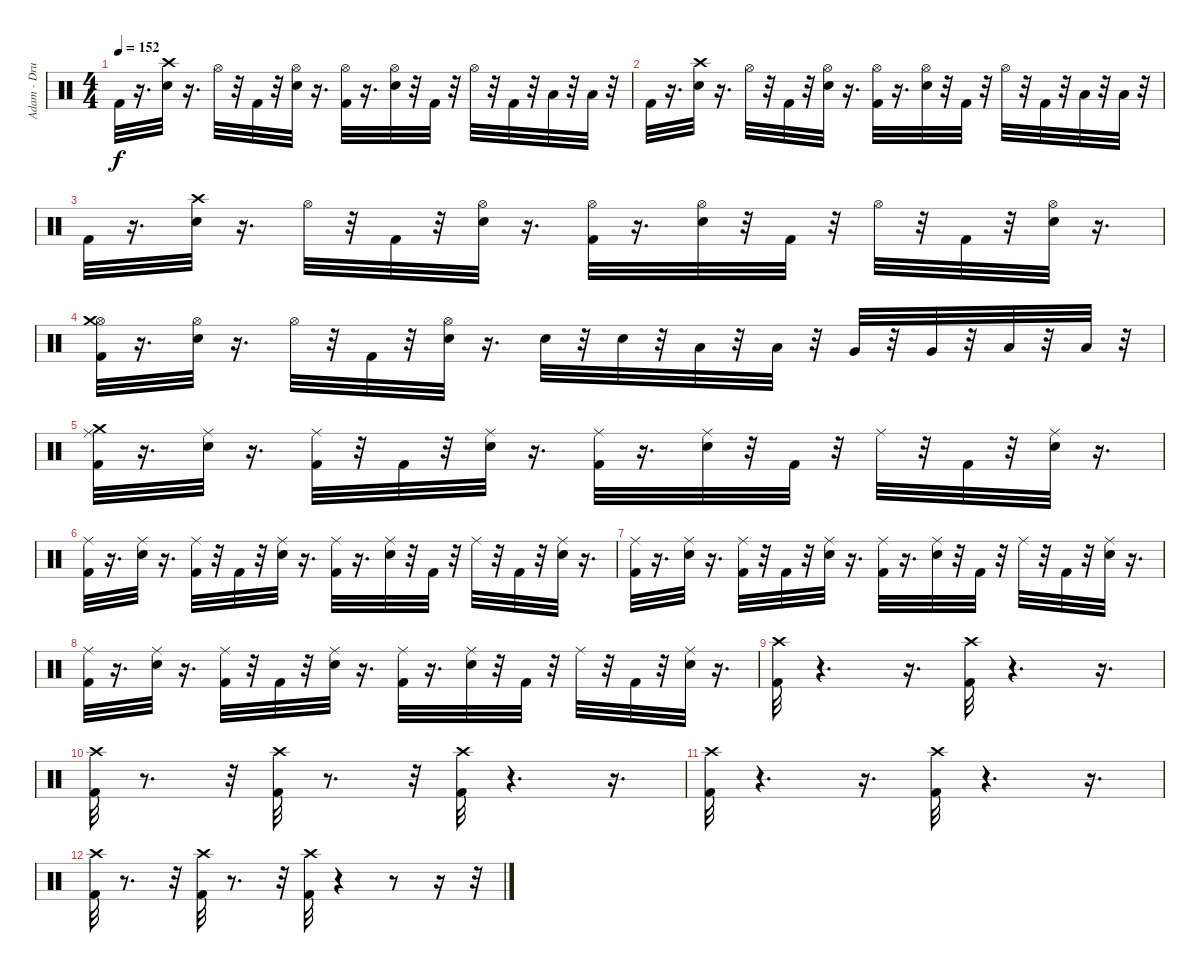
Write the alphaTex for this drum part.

\track ("Adam - Drums" "Adam - Dru") {instrument percussion}
\staff {score}
\articulation defaults
\ts (4 4)
\tempo 152
\clef neutral
\ks c "Kick (hit) 2".32{dy f}
r.16{d} ("Snare (hit) 2" "Crash high (hit)").32 r.16{d} "Hi-Hat (open)".32 r.32 "Kick (hit) 2".32 r.32 ("Snare (hit) 2" "Hi-Hat (open)").32 r.16{d} ("Kick (hit) 2" "Hi-Hat (open)").32 r.16{d} ("Snare (hit) 2" "Hi-Hat (open)").32 r.32 "Kick (hit) 2".32 r.32 "Hi-Hat (open)".32 r.32 "Kick (hit) 2".32 r.32 "Low Floor Tom (hit)".32 r.32 "Low Floor Tom (hit)".32 r.32 |
"Kick (hit) 2".32 r.16{d} ("Snare (hit) 2" "Crash high (hit)").32 r.16{d} "Hi-Hat (open)".32 r.32 "Kick (hit) 2".32 r.32 ("Snare (hit) 2" "Hi-Hat (open)").32 r.16{d} ("Kick (hit) 2" "Hi-Hat (open)").32 r.16{d} ("Snare (hit) 2" "Hi-Hat (open)").32 r.32 "Kick (hit) 2".32 r.32 "Hi-Hat (open)".32 r.32 "Kick (hit) 2".32 r.32 "Low Floor Tom (hit)".32 r.32 "Low Floor Tom (hit)".32 r.32 |
"Kick (hit) 2".32 r.16{d} ("Snare (hit) 2" "Crash high (hit)").32 r.16{d} "Hi-Hat (open)".32 r.32 "Kick (hit) 2".32 r.32 ("Snare (hit) 2" "Hi-Hat (open)").32 r.16{d} ("Kick (hit) 2" "Hi-Hat (open)").32 r.16{d} ("Snare (hit) 2" "Hi-Hat (open)").32 r.32 "Kick (hit) 2".32 r.32 "Hi-Hat (open)".32 r.32 "Kick (hit) 2".32 r.32 ("Snare (hit) 2" "Hi-Hat (open)").32 r.16{d} |
("Kick (hit) 2" "Hi-Hat (open)" "Crash medium (hit)").32 r.16{d} ("Snare (hit) 2" "Hi-Hat (open)").32 r.16{d} "Hi-Hat (open)".32 r.32 "Kick (hit) 2".32 r.32 ("Hi-Hat (open)" "Snare (hit) 2").32 r.16{d} "Snare (hit) 2".32 r.32 "Snare (hit) 2".32 r.32 "Low Tom (hit)".32 r.32 "Low Tom (hit)".32 r.32 "Very Low Tom (hit)".32 r.32 "Very Low Tom (hit)".32 r.32 "Low Floor Tom (hit)".32 r.32 "Low Floor Tom (hit)".32 r.32 |
("Crash medium (hit)" "Ride (middle)" "Kick (hit) 2").32 r.16{d} ("Ride (middle)" "Snare (hit) 2").32 r.16{d} ("Ride (middle)" "Kick (hit) 2").32 r.32 "Kick (hit) 2".32 r.32 ("Ride (middle)" "Snare (hit) 2").32 r.16{d} ("Ride (middle)" "Kick (hit) 2").32 r.16{d} ("Ride (middle)" "Snare (hit) 2").32 r.32 "Kick (hit) 2".32 r.32 "Ride (middle)".32 r.32 "Kick (hit) 2".32 r.32 ("Ride (middle)" "Snare (hit) 2").32 r.16{d} |
("Ride (middle)" "Kick (hit) 2").32 r.16{d} ("Ride (middle)" "Snare (hit) 2").32 r.16{d} ("Ride (middle)" "Kick (hit) 2").32 r.32 "Kick (hit) 2".32 r.32 ("Ride (middle)" "Snare (hit) 2").32 r.16{d} ("Ride (middle)" "Kick (hit) 2").32 r.16{d} ("Ride (middle)" "Snare (hit) 2").32 r.32 "Kick (hit) 2".32 r.32 "Ride (middle)".32 r.32 "Kick (hit) 2".32 r.32 ("Ride (middle)" "Snare (hit) 2").32 r.16{d} |
("Ride (middle)" "Kick (hit) 2").32 r.16{d} ("Ride (middle)" "Snare (hit) 2").32 r.16{d} ("Ride (middle)" "Kick (hit) 2").32 r.32 "Kick (hit) 2".32 r.32 ("Ride (middle)" "Snare (hit) 2").32 r.16{d} ("Ride (middle)" "Kick (hit) 2").32 r.16{d} ("Ride (middle)" "Snare (hit) 2").32 r.32 "Kick (hit) 2".32 r.32 "Ride (middle)".32 r.32 "Kick (hit) 2".32 r.32 ("Ride (middle)" "Snare (hit) 2").32 r.16{d} |
("Ride (middle)" "Kick (hit) 2").32 r.16{d} ("Ride (middle)" "Snare (hit) 2").32 r.16{d} ("Ride (middle)" "Kick (hit) 2").32 r.32 "Kick (hit) 2".32 r.32 ("Ride (middle)" "Snare (hit) 2").32 r.16{d} ("Ride (middle)" "Kick (hit) 2").32 r.16{d} ("Ride (middle)" "Snare (hit) 2").32 r.32 "Kick (hit) 2".32 r.32 "Ride (middle)".32 r.32 "Kick (hit) 2".32 r.32 ("Ride (middle)" "Snare (hit) 2").32 r.16{d} |
("Crash high (hit)" "Kick (hit) 2").32 r.4{d} r.16{d} ("Kick (hit) 2" "Crash high (hit)").32 r.4{d} r.16{d} |
("Crash high (hit)" "Kick (hit) 2").32 r.8{d} r.32 ("Crash high (hit)" "Kick (hit) 2").32 r.8{d} r.32 ("Crash high (hit)" "Kick (hit) 2").32 r.4{d} r.16{d} |
("Crash high (hit)" "Kick (hit) 2").32 r.4{d} r.16{d} ("Kick (hit) 2" "Crash high (hit)").32 r.4{d} r.16{d} |
("Crash high (hit)" "Kick (hit) 2").32 r.8{d} r.32 ("Crash high (hit)" "Kick (hit) 2").32 r.8{d} r.32 ("Crash high (hit)" "Kick (hit) 2").32 r.4 r.8 r.16 r.32
